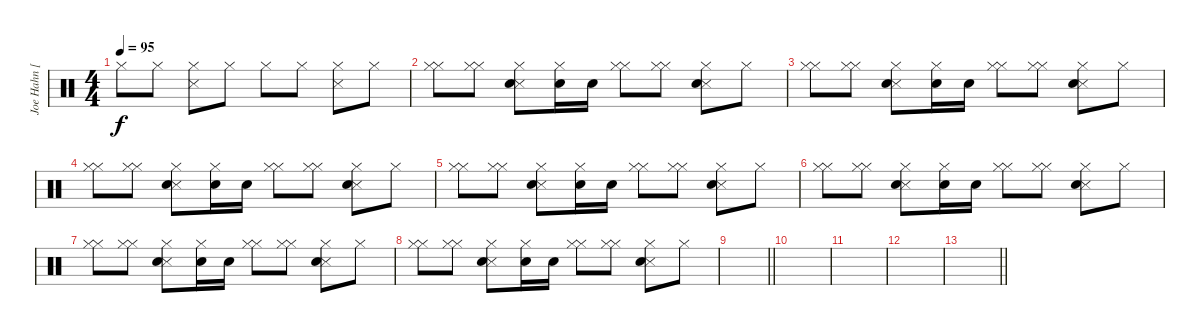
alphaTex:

\track ("Joe Hahn [3]" "Joe Hahn [") {instrument percussion}
\staff {score}
\articulation defaults
\ts (4 4)
\tempo 95
\clef neutral
\ks c "Hi-Hat (closed)".8{dy f} "Hi-Hat (closed)".8
("Hi-Hat (closed)" "Snare (side stick) 3").8 "Hi-Hat (closed)".8 "Hi-Hat (closed)".8 "Hi-Hat (closed)".8 ("Hi-Hat (closed)" "Snare (side stick) 3").8 "Hi-Hat (closed)".8 |
("Hi-Hat (closed)" "Hi-Hat (closed)").8 ("Hi-Hat (closed)" "Hi-Hat (closed)").8 ("Hi-Hat (closed)" "Snare (side stick) 3" "Hand Clap (hit)").8 ("Hi-Hat (closed)" "Hand Clap (hit)").16 "Hand Clap (hit)".16 ("Hi-Hat (closed)" "Hi-Hat (closed)").8 ("Hi-Hat (closed)" "Hi-Hat (closed)").8 ("Hi-Hat (closed)" "Snare (side stick) 3" "Hand Clap (hit)").8 "Hi-Hat (closed)".8 |
("Hi-Hat (closed)" "Hi-Hat (closed)").8 ("Hi-Hat (closed)" "Hi-Hat (closed)").8 ("Hi-Hat (closed)" "Snare (side stick) 3" "Hand Clap (hit)").8 ("Hi-Hat (closed)" "Hand Clap (hit)").16 "Hand Clap (hit)".16 ("Hi-Hat (closed)" "Hi-Hat (closed)").8 ("Hi-Hat (closed)" "Hi-Hat (closed)").8 ("Hi-Hat (closed)" "Snare (side stick) 3" "Hand Clap (hit)").8 "Hi-Hat (closed)".8 |
("Hi-Hat (closed)" "Hi-Hat (closed)").8 ("Hi-Hat (closed)" "Hi-Hat (closed)").8 ("Hi-Hat (closed)" "Snare (side stick) 3" "Hand Clap (hit)").8 ("Hi-Hat (closed)" "Hand Clap (hit)").16 "Hand Clap (hit)".16 ("Hi-Hat (closed)" "Hi-Hat (closed)").8 ("Hi-Hat (closed)" "Hi-Hat (closed)").8 ("Hi-Hat (closed)" "Snare (side stick) 3" "Hand Clap (hit)").8 "Hi-Hat (closed)".8 |
("Hi-Hat (closed)" "Hi-Hat (closed)").8 ("Hi-Hat (closed)" "Hi-Hat (closed)").8 ("Hi-Hat (closed)" "Snare (side stick) 3" "Hand Clap (hit)").8 ("Hi-Hat (closed)" "Hand Clap (hit)").16 "Hand Clap (hit)".16 ("Hi-Hat (closed)" "Hi-Hat (closed)").8 ("Hi-Hat (closed)" "Hi-Hat (closed)").8 ("Hi-Hat (closed)" "Snare (side stick) 3" "Hand Clap (hit)").8 "Hi-Hat (closed)".8 |
("Hi-Hat (closed)" "Hi-Hat (closed)").8 ("Hi-Hat (closed)" "Hi-Hat (closed)").8 ("Hi-Hat (closed)" "Snare (side stick) 3" "Hand Clap (hit)").8 ("Hi-Hat (closed)" "Hand Clap (hit)").16 "Hand Clap (hit)".16 ("Hi-Hat (closed)" "Hi-Hat (closed)").8 ("Hi-Hat (closed)" "Hi-Hat (closed)").8 ("Hi-Hat (closed)" "Snare (side stick) 3" "Hand Clap (hit)").8 "Hi-Hat (closed)".8 |
("Hi-Hat (closed)" "Hi-Hat (closed)").8 ("Hi-Hat (closed)" "Hi-Hat (closed)").8 ("Hi-Hat (closed)" "Snare (side stick) 3" "Hand Clap (hit)").8 ("Hi-Hat (closed)" "Hand Clap (hit)").16 "Hand Clap (hit)".16 ("Hi-Hat (closed)" "Hi-Hat (closed)").8 ("Hi-Hat (closed)" "Hi-Hat (closed)").8 ("Hi-Hat (closed)" "Snare (side stick) 3" "Hand Clap (hit)").8 "Hi-Hat (closed)".8 |
("Hi-Hat (closed)" "Hi-Hat (closed)").8 ("Hi-Hat (closed)" "Hi-Hat (closed)").8 ("Hi-Hat (closed)" "Snare (side stick) 3" "Hand Clap (hit)").8 ("Hi-Hat (closed)" "Hand Clap (hit)").16 "Hand Clap (hit)".16 ("Hi-Hat (closed)" "Hi-Hat (closed)").8 ("Hi-Hat (closed)" "Hi-Hat (closed)").8 ("Hi-Hat (closed)" "Snare (side stick) 3" "Hand Clap (hit)").8 "Hi-Hat (closed)".8 |
\barLineRight lightlight
|
|
|
|
\barLineRight lightlight
